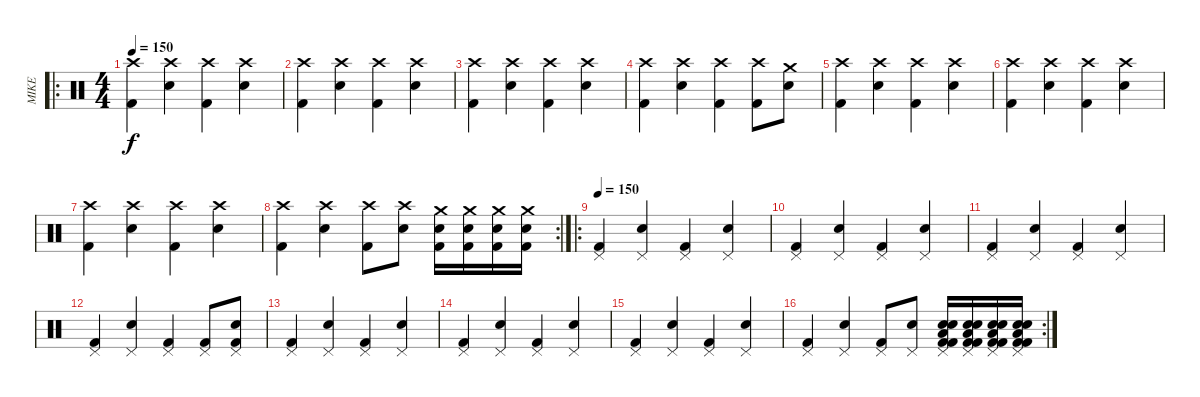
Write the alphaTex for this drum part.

\track ("MIKE" "MIKE") {instrument percussion}
\staff {score}
\articulation defaults
\ro
\ts (4 4)
\tempo 150
\clef neutral
\ks c
("Crash high (hit)" "Kick (hit) 2").4{dy f} ("Crash high (hit)" "Electric Snare (hit)").4 ("Crash high (hit)" "Kick (hit) 2").4 ("Crash high (hit)" "Electric Snare (hit)").4 |
("Crash high (hit)" "Kick (hit) 2").4 ("Crash high (hit)" "Electric Snare (hit)").4 ("Crash high (hit)" "Kick (hit) 2").4 ("Crash high (hit)" "Electric Snare (hit)").4 |
("Crash high (hit)" "Kick (hit) 2").4 ("Crash high (hit)" "Electric Snare (hit)").4 ("Crash high (hit)" "Kick (hit) 2").4 ("Crash high (hit)" "Electric Snare (hit)").4 |
("Crash high (hit)" "Kick (hit) 2").4 ("Crash high (hit)" "Electric Snare (hit)").4 ("Crash high (hit)" "Kick (hit) 2").4 ("Crash high (hit)" "Kick (hit) 2").8 ("Crash medium (hit)" "Electric Snare (hit)").8 |
("Crash high (hit)" "Kick (hit) 2").4 ("Crash high (hit)" "Electric Snare (hit)").4 ("Crash high (hit)" "Kick (hit) 2").4 ("Crash high (hit)" "Electric Snare (hit)").4 |
("Crash high (hit)" "Kick (hit) 2").4 ("Crash high (hit)" "Electric Snare (hit)").4 ("Crash high (hit)" "Kick (hit) 2").4 ("Crash high (hit)" "Electric Snare (hit)").4 |
("Crash high (hit)" "Kick (hit) 2").4 ("Crash high (hit)" "Electric Snare (hit)").4 ("Crash high (hit)" "Kick (hit) 2").4 ("Crash high (hit)" "Electric Snare (hit)").4 |
\rc 2
("Crash high (hit)" "Kick (hit) 2").4 ("Crash high (hit)" "Electric Snare (hit)").4 ("Crash high (hit)" "Kick (hit) 2").8 ("Crash high (hit)" "Electric Snare (hit)").8 ("Kick (hit) 2" "Crash medium (hit)" "Electric Snare (hit)").16 ("Kick (hit) 2" "Crash medium (hit)" "Electric Snare (hit)").16 ("Kick (hit) 2" "Crash medium (hit)" "Electric Snare (hit)").16 ("Kick (hit) 2" "Crash medium (hit)" "Electric Snare (hit)").16 |
\ro
\tempo 150
("Pedal Hi-Hat (hit)" "Kick (hit) 2").4 ("Pedal Hi-Hat (hit)" "Snare (hit) 2").4 ("Pedal Hi-Hat (hit)" "Kick (hit) 2").4 ("Pedal Hi-Hat (hit)" "Snare (hit) 2").4 |
("Pedal Hi-Hat (hit)" "Kick (hit) 2").4 ("Pedal Hi-Hat (hit)" "Snare (hit) 2").4 ("Pedal Hi-Hat (hit)" "Kick (hit) 2").4 ("Pedal Hi-Hat (hit)" "Snare (hit) 2").4 |
("Pedal Hi-Hat (hit)" "Kick (hit) 2").4 ("Pedal Hi-Hat (hit)" "Snare (hit) 2").4 ("Pedal Hi-Hat (hit)" "Kick (hit) 2").4 ("Pedal Hi-Hat (hit)" "Snare (hit) 2").4 |
("Pedal Hi-Hat (hit)" "Kick (hit) 2").4 ("Pedal Hi-Hat (hit)" "Snare (hit) 2").4 ("Pedal Hi-Hat (hit)" "Kick (hit) 2").4 ("Pedal Hi-Hat (hit)" "Kick (hit) 2").8 ("Kick (hit) 2" "Pedal Hi-Hat (hit)" "Electric Snare (hit)").8 |
("Pedal Hi-Hat (hit)" "Kick (hit) 2").4 ("Pedal Hi-Hat (hit)" "Snare (hit) 2").4 ("Pedal Hi-Hat (hit)" "Kick (hit) 2").4 ("Pedal Hi-Hat (hit)" "Snare (hit) 2").4 |
("Pedal Hi-Hat (hit)" "Kick (hit) 2").4 ("Pedal Hi-Hat (hit)" "Snare (hit) 2").4 ("Pedal Hi-Hat (hit)" "Kick (hit) 2").4 ("Pedal Hi-Hat (hit)" "Snare (hit) 2").4 |
("Pedal Hi-Hat (hit)" "Kick (hit) 2").4 ("Pedal Hi-Hat (hit)" "Snare (hit) 2").4 ("Pedal Hi-Hat (hit)" "Kick (hit) 2").4 ("Pedal Hi-Hat (hit)" "Snare (hit) 2").4 |
\rc 2
("Pedal Hi-Hat (hit)" "Kick (hit) 2").4 ("Pedal Hi-Hat (hit)" "Snare (hit) 2").4 ("Pedal Hi-Hat (hit)" "Kick (hit) 2").8 ("Pedal Hi-Hat (hit)" "Snare (hit) 2").8 ("Low Floor Tom (hit)" "Electric Snare (hit)" "Kick (hit) 2" "Snare (hit) 2" "Pedal Hi-Hat (hit)" "Kick (hit) 2").16 ("Low Floor Tom (hit)" "Electric Snare (hit)" "Kick (hit) 2" "Snare (hit) 2" "Pedal Hi-Hat (hit)" "Kick (hit) 2").16 ("Low Floor Tom (hit)" "Electric Snare (hit)" "Kick (hit) 2" "Snare (hit) 2" "Pedal Hi-Hat (hit)" "Kick (hit) 2").16 ("Low Floor Tom (hit)" "Electric Snare (hit)" "Kick (hit) 2" "Snare (hit) 2" "Pedal Hi-Hat (hit)" "Kick (hit) 2").16
